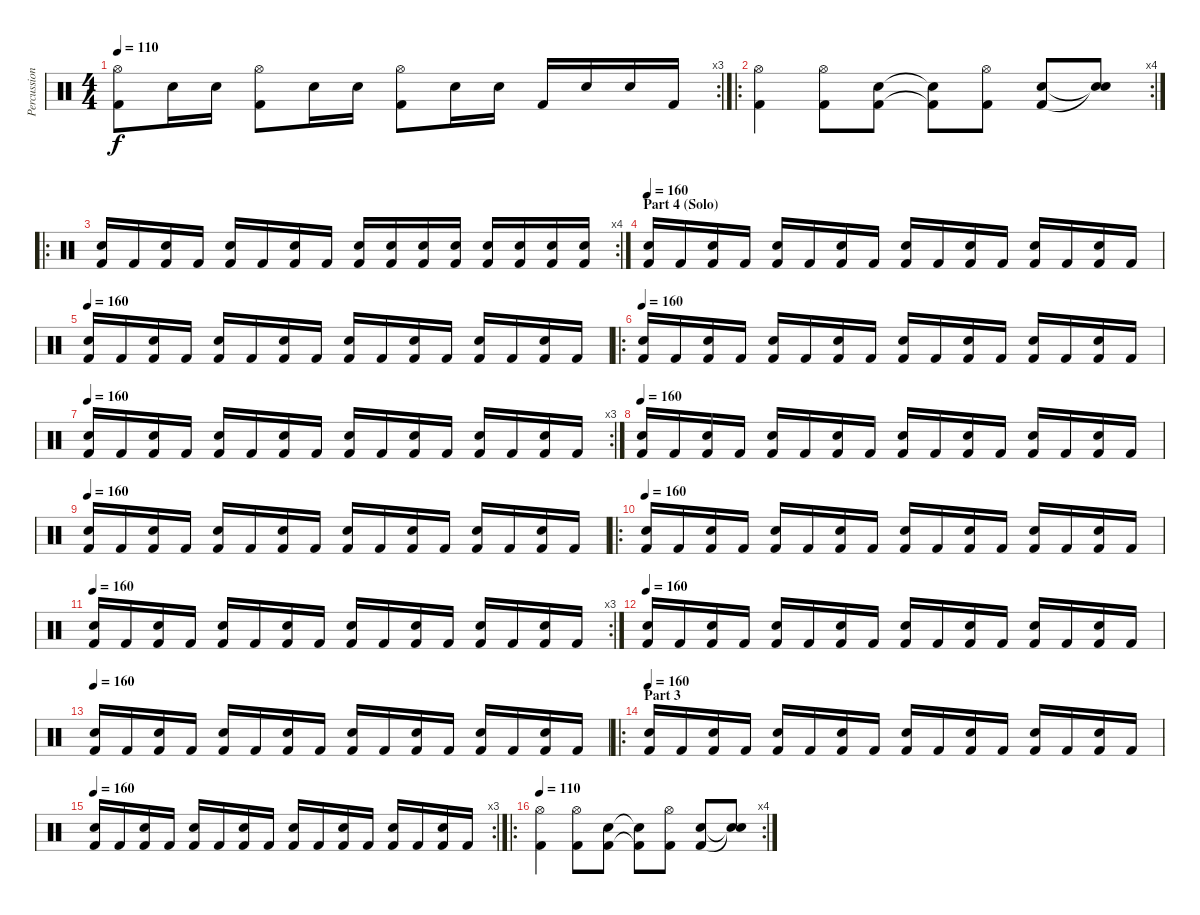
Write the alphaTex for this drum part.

\track ("Percussion" "Percussion") {instrument percussion}
\staff {score}
\articulation defaults
\rc 3
\ts (4 4)
\tempo 110
\clef neutral
\ks c
("Hi-Hat (open)" "Kick (hit) 2").8{dy f} "Snare (hit) 2".16 "Snare (hit) 2".16 ("Hi-Hat (open)" "Kick (hit) 2").8 "Snare (hit) 2".16 "Snare (hit) 2".16 ("Hi-Hat (open)" "Kick (hit) 2").8 "Snare (hit) 2".16 "Snare (hit) 2".16 "Kick (hit) 2".16 "Snare (hit) 2".16 "Snare (hit) 2".16 "Kick (hit) 2".16 |
\ro
\rc 4
("Hi-Hat (open)" "Kick (hit) 2").4 ("Hi-Hat (open)" "Kick (hit) 2").8 ("Snare (hit) 2" "Kick (hit) 2").8 ("Snare (hit) 2"{t} "Kick (hit) 2"{t}).8 ("Hi-Hat (open)" "Kick (hit) 2").8 ("Snare (hit) 2" "Kick (hit) 2").8 ("Snare (hit)"{t} "Snare (hit)"{t}).8 |
\ro
\rc 4
("Metronome (bell)" "Kick (hit) 2").16 "Kick (hit) 2".16 ("Metronome (bell)" "Kick (hit) 2").16 "Kick (hit) 2".16 ("Metronome (bell)" "Kick (hit) 2").16 "Kick (hit) 2".16 ("Metronome (bell)" "Kick (hit) 2").16 "Kick (hit) 2".16 ("Metronome (bell)" "Kick (hit) 2").16 ("Metronome (bell)" "Kick (hit) 2").16 ("Metronome (bell)" "Kick (hit) 2").16 ("Metronome (bell)" "Kick (hit) 2").16 ("Metronome (bell)" "Kick (hit) 2").16 ("Metronome (bell)" "Kick (hit) 2").16 ("Metronome (bell)" "Kick (hit) 2").16 ("Metronome (bell)" "Kick (hit) 2").16 |
\section ("" "Part 4 (Solo)")
\tempo 160
("Snare (hit) 2" "Kick (hit) 2").16 "Kick (hit) 2".16 ("Snare (hit) 2" "Kick (hit) 2").16 "Kick (hit) 2".16 ("Snare (hit) 2" "Kick (hit) 2").16 "Kick (hit) 2".16 ("Snare (hit) 2" "Kick (hit) 2").16 "Kick (hit) 2".16 ("Snare (hit) 2" "Kick (hit) 2").16 "Kick (hit) 2".16 ("Snare (hit) 2" "Kick (hit) 2").16 "Kick (hit) 2".16 ("Snare (hit) 2" "Kick (hit) 2").16 "Kick (hit) 2".16 ("Snare (hit) 2" "Kick (hit) 2").16 "Kick (hit) 2".16 |
\tempo 160
("Snare (hit) 2" "Kick (hit) 2").16 "Kick (hit) 2".16 ("Snare (hit) 2" "Kick (hit) 2").16 "Kick (hit) 2".16 ("Snare (hit) 2" "Kick (hit) 2").16 "Kick (hit) 2".16 ("Snare (hit) 2" "Kick (hit) 2").16 "Kick (hit) 2".16 ("Snare (hit) 2" "Kick (hit) 2").16 "Kick (hit) 2".16 ("Snare (hit) 2" "Kick (hit) 2").16 "Kick (hit) 2".16 ("Snare (hit) 2" "Kick (hit) 2").16 "Kick (hit) 2".16 ("Snare (hit) 2" "Kick (hit) 2").16 "Kick (hit) 2".16 |
\ro
\tempo 160
("Snare (hit) 2" "Kick (hit) 2").16 "Kick (hit) 2".16 ("Snare (hit) 2" "Kick (hit) 2").16 "Kick (hit) 2".16 ("Snare (hit) 2" "Kick (hit) 2").16 "Kick (hit) 2".16 ("Snare (hit) 2" "Kick (hit) 2").16 "Kick (hit) 2".16 ("Snare (hit) 2" "Kick (hit) 2").16 "Kick (hit) 2".16 ("Snare (hit) 2" "Kick (hit) 2").16 "Kick (hit) 2".16 ("Snare (hit) 2" "Kick (hit) 2").16 "Kick (hit) 2".16 ("Snare (hit) 2" "Kick (hit) 2").16 "Kick (hit) 2".16 |
\rc 3
\tempo 160
("Snare (hit) 2" "Kick (hit) 2").16 "Kick (hit) 2".16 ("Snare (hit) 2" "Kick (hit) 2").16 "Kick (hit) 2".16 ("Snare (hit) 2" "Kick (hit) 2").16 "Kick (hit) 2".16 ("Snare (hit) 2" "Kick (hit) 2").16 "Kick (hit) 2".16 ("Snare (hit) 2" "Kick (hit) 2").16 "Kick (hit) 2".16 ("Snare (hit) 2" "Kick (hit) 2").16 "Kick (hit) 2".16 ("Snare (hit) 2" "Kick (hit) 2").16 "Kick (hit) 2".16 ("Snare (hit) 2" "Kick (hit) 2").16 "Kick (hit) 2".16 |
\tempo 160
("Snare (hit) 2" "Kick (hit) 2").16 "Kick (hit) 2".16 ("Snare (hit) 2" "Kick (hit) 2").16 "Kick (hit) 2".16 ("Snare (hit) 2" "Kick (hit) 2").16 "Kick (hit) 2".16 ("Snare (hit) 2" "Kick (hit) 2").16 "Kick (hit) 2".16 ("Snare (hit) 2" "Kick (hit) 2").16 "Kick (hit) 2".16 ("Snare (hit) 2" "Kick (hit) 2").16 "Kick (hit) 2".16 ("Snare (hit) 2" "Kick (hit) 2").16 "Kick (hit) 2".16 ("Snare (hit) 2" "Kick (hit) 2").16 "Kick (hit) 2".16 |
\tempo 160
("Snare (hit) 2" "Kick (hit) 2").16 "Kick (hit) 2".16 ("Snare (hit) 2" "Kick (hit) 2").16 "Kick (hit) 2".16 ("Snare (hit) 2" "Kick (hit) 2").16 "Kick (hit) 2".16 ("Snare (hit) 2" "Kick (hit) 2").16 "Kick (hit) 2".16 ("Snare (hit) 2" "Kick (hit) 2").16 "Kick (hit) 2".16 ("Snare (hit) 2" "Kick (hit) 2").16 "Kick (hit) 2".16 ("Snare (hit) 2" "Kick (hit) 2").16 "Kick (hit) 2".16 ("Snare (hit) 2" "Kick (hit) 2").16 "Kick (hit) 2".16 |
\ro
\tempo 160
("Snare (hit) 2" "Kick (hit) 2").16 "Kick (hit) 2".16 ("Snare (hit) 2" "Kick (hit) 2").16 "Kick (hit) 2".16 ("Snare (hit) 2" "Kick (hit) 2").16 "Kick (hit) 2".16 ("Snare (hit) 2" "Kick (hit) 2").16 "Kick (hit) 2".16 ("Snare (hit) 2" "Kick (hit) 2").16 "Kick (hit) 2".16 ("Snare (hit) 2" "Kick (hit) 2").16 "Kick (hit) 2".16 ("Snare (hit) 2" "Kick (hit) 2").16 "Kick (hit) 2".16 ("Snare (hit) 2" "Kick (hit) 2").16 "Kick (hit) 2".16 |
\rc 3
\tempo 160
("Snare (hit) 2" "Kick (hit) 2").16 "Kick (hit) 2".16 ("Snare (hit) 2" "Kick (hit) 2").16 "Kick (hit) 2".16 ("Snare (hit) 2" "Kick (hit) 2").16 "Kick (hit) 2".16 ("Snare (hit) 2" "Kick (hit) 2").16 "Kick (hit) 2".16 ("Snare (hit) 2" "Kick (hit) 2").16 "Kick (hit) 2".16 ("Snare (hit) 2" "Kick (hit) 2").16 "Kick (hit) 2".16 ("Snare (hit) 2" "Kick (hit) 2").16 "Kick (hit) 2".16 ("Snare (hit) 2" "Kick (hit) 2").16 "Kick (hit) 2".16 |
\tempo 160
("Snare (hit) 2" "Kick (hit) 2").16 "Kick (hit) 2".16 ("Snare (hit) 2" "Kick (hit) 2").16 "Kick (hit) 2".16 ("Snare (hit) 2" "Kick (hit) 2").16 "Kick (hit) 2".16 ("Snare (hit) 2" "Kick (hit) 2").16 "Kick (hit) 2".16 ("Snare (hit) 2" "Kick (hit) 2").16 "Kick (hit) 2".16 ("Snare (hit) 2" "Kick (hit) 2").16 "Kick (hit) 2".16 ("Snare (hit) 2" "Kick (hit) 2").16 "Kick (hit) 2".16 ("Snare (hit) 2" "Kick (hit) 2").16 "Kick (hit) 2".16 |
\tempo 160
("Snare (hit) 2" "Kick (hit) 2").16 "Kick (hit) 2".16 ("Snare (hit) 2" "Kick (hit) 2").16 "Kick (hit) 2".16 ("Snare (hit) 2" "Kick (hit) 2").16 "Kick (hit) 2".16 ("Snare (hit) 2" "Kick (hit) 2").16 "Kick (hit) 2".16 ("Snare (hit) 2" "Kick (hit) 2").16 "Kick (hit) 2".16 ("Snare (hit) 2" "Kick (hit) 2").16 "Kick (hit) 2".16 ("Snare (hit) 2" "Kick (hit) 2").16 "Kick (hit) 2".16 ("Snare (hit) 2" "Kick (hit) 2").16 "Kick (hit) 2".16 |
\ro
\section ("" "Part 3")
\tempo 160
("Snare (hit) 2" "Kick (hit) 2").16 "Kick (hit) 2".16 ("Snare (hit) 2" "Kick (hit) 2").16 "Kick (hit) 2".16 ("Snare (hit) 2" "Kick (hit) 2").16 "Kick (hit) 2".16 ("Snare (hit) 2" "Kick (hit) 2").16 "Kick (hit) 2".16 ("Snare (hit) 2" "Kick (hit) 2").16 "Kick (hit) 2".16 ("Snare (hit) 2" "Kick (hit) 2").16 "Kick (hit) 2".16 ("Snare (hit) 2" "Kick (hit) 2").16 "Kick (hit) 2".16 ("Snare (hit) 2" "Kick (hit) 2").16 "Kick (hit) 2".16 |
\rc 3
\tempo 160
("Snare (hit) 2" "Kick (hit) 2").16 "Kick (hit) 2".16 ("Snare (hit) 2" "Kick (hit) 2").16 "Kick (hit) 2".16 ("Snare (hit) 2" "Kick (hit) 2").16 "Kick (hit) 2".16 ("Snare (hit) 2" "Kick (hit) 2").16 "Kick (hit) 2".16 ("Snare (hit) 2" "Kick (hit) 2").16 "Kick (hit) 2".16 ("Snare (hit) 2" "Kick (hit) 2").16 "Kick (hit) 2".16 ("Snare (hit) 2" "Kick (hit) 2").16 "Kick (hit) 2".16 ("Snare (hit) 2" "Kick (hit) 2").16 "Kick (hit) 2".16 |
\ro
\rc 4
\tempo 110
("Hi-Hat (open)" "Kick (hit) 2").4 ("Hi-Hat (open)" "Kick (hit) 2").8 ("Snare (hit) 2" "Kick (hit) 2").8 ("Snare (hit) 2"{t} "Kick (hit) 2"{t}).8 ("Hi-Hat (open)" "Kick (hit) 2").8 ("Snare (hit) 2" "Kick (hit) 2").8 ("Snare (hit)"{t} "Snare (hit)"{t}).8
